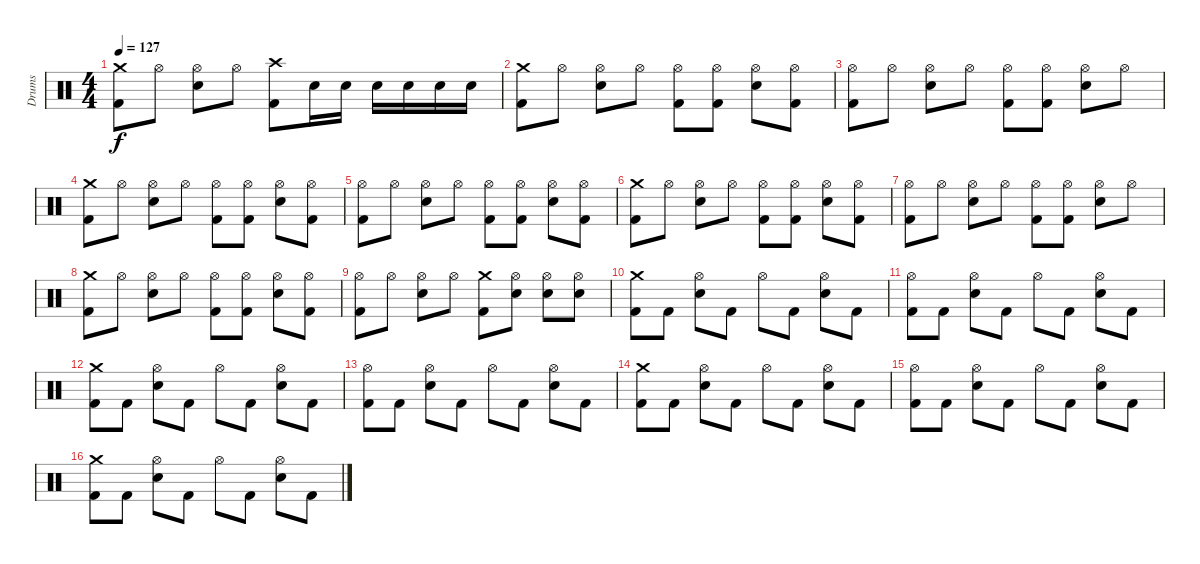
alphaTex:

\track ("Drums" "Drums") {instrument percussion}
\staff {score}
\articulation defaults
\ts (4 4)
\tempo 127
\clef neutral
\ks c
("Kick (hit) 2" "Crash medium (hit)").8{dy f} "Hi-Hat (open)".8 ("Electric Snare (hit)" "Hi-Hat (open)").8 "Hi-Hat (open)".8 ("Kick (hit) 2" "Crash high (hit)").8 "Electric Snare (hit)".16 "Electric Snare (hit)".16 "Electric Snare (hit)".16 "Electric Snare (hit)".16 "Electric Snare (hit)".16 "Electric Snare (hit)".16 |
("Kick (hit) 2" "Crash medium (hit)").8 "Hi-Hat (open)".8 ("Electric Snare (hit)" "Hi-Hat (open)").8 "Hi-Hat (open)".8 ("Kick (hit) 2" "Hi-Hat (open)").8 ("Kick (hit) 2" "Hi-Hat (open)").8 ("Electric Snare (hit)" "Hi-Hat (open)").8 ("Kick (hit) 2" "Hi-Hat (open)").8 |
("Kick (hit) 2" "Hi-Hat (open)").8 "Hi-Hat (open)".8 ("Electric Snare (hit)" "Hi-Hat (open)").8 "Hi-Hat (open)".8 ("Kick (hit) 2" "Hi-Hat (open)").8 ("Kick (hit) 2" "Hi-Hat (open)").8 ("Electric Snare (hit)" "Hi-Hat (open)").8 "Hi-Hat (open)".8 |
("Kick (hit) 2" "Crash medium (hit)").8 "Hi-Hat (open)".8 ("Electric Snare (hit)" "Hi-Hat (open)").8 "Hi-Hat (open)".8 ("Kick (hit) 2" "Hi-Hat (open)").8 ("Kick (hit) 2" "Hi-Hat (open)").8 ("Electric Snare (hit)" "Hi-Hat (open)").8 ("Kick (hit) 2" "Hi-Hat (open)").8 |
("Kick (hit) 2" "Hi-Hat (open)").8 "Hi-Hat (open)".8 ("Electric Snare (hit)" "Hi-Hat (open)").8 "Hi-Hat (open)".8 ("Kick (hit) 2" "Hi-Hat (open)").8 ("Kick (hit) 2" "Hi-Hat (open)").8 ("Electric Snare (hit)" "Hi-Hat (open)").8 ("Kick (hit) 2" "Hi-Hat (open)").8 |
("Kick (hit) 2" "Crash medium (hit)").8 "Hi-Hat (open)".8 ("Electric Snare (hit)" "Hi-Hat (open)").8 "Hi-Hat (open)".8 ("Kick (hit) 2" "Hi-Hat (open)").8 ("Kick (hit) 2" "Hi-Hat (open)").8 ("Electric Snare (hit)" "Hi-Hat (open)").8 ("Kick (hit) 2" "Hi-Hat (open)").8 |
("Kick (hit) 2" "Hi-Hat (open)").8 "Hi-Hat (open)".8 ("Electric Snare (hit)" "Hi-Hat (open)").8 "Hi-Hat (open)".8 ("Kick (hit) 2" "Hi-Hat (open)").8 ("Kick (hit) 2" "Hi-Hat (open)").8 ("Electric Snare (hit)" "Hi-Hat (open)").8 "Hi-Hat (open)".8 |
("Kick (hit) 2" "Crash medium (hit)").8 "Hi-Hat (open)".8 ("Electric Snare (hit)" "Hi-Hat (open)").8 "Hi-Hat (open)".8 ("Kick (hit) 2" "Hi-Hat (open)").8 ("Kick (hit) 2" "Hi-Hat (open)").8 ("Electric Snare (hit)" "Hi-Hat (open)").8 ("Kick (hit) 2" "Hi-Hat (open)").8 |
("Kick (hit) 2" "Hi-Hat (open)").8 "Hi-Hat (open)".8 ("Electric Snare (hit)" "Hi-Hat (open)").8 "Hi-Hat (open)".8 ("Kick (hit) 2" "Crash medium (hit)").8 ("Electric Snare (hit)" "Hi-Hat (open)").8 ("Electric Snare (hit)" "Hi-Hat (open)").8 ("Electric Snare (hit)" "Hi-Hat (open)").8 |
("Kick (hit) 2" "Crash medium (hit)").8 "Kick (hit) 2".8 ("Electric Snare (hit)" "Hi-Hat (open)").8 "Kick (hit) 2".8 "Hi-Hat (open)".8 "Kick (hit) 2".8 ("Electric Snare (hit)" "Hi-Hat (open)").8 "Kick (hit) 2".8 |
("Kick (hit) 2" "Hi-Hat (open)").8 "Kick (hit) 2".8 ("Electric Snare (hit)" "Hi-Hat (open)").8 "Kick (hit) 2".8 "Hi-Hat (open)".8 "Kick (hit) 2".8 ("Electric Snare (hit)" "Hi-Hat (open)").8 "Kick (hit) 2".8 |
("Kick (hit) 2" "Crash medium (hit)").8 "Kick (hit) 2".8 ("Electric Snare (hit)" "Hi-Hat (open)").8 "Kick (hit) 2".8 "Hi-Hat (open)".8 "Kick (hit) 2".8 ("Electric Snare (hit)" "Hi-Hat (open)").8 "Kick (hit) 2".8 |
("Kick (hit) 2" "Hi-Hat (open)").8 "Kick (hit) 2".8 ("Electric Snare (hit)" "Hi-Hat (open)").8 "Kick (hit) 2".8 "Hi-Hat (open)".8 "Kick (hit) 2".8 ("Electric Snare (hit)" "Hi-Hat (open)").8 "Kick (hit) 2".8 |
("Kick (hit) 2" "Crash medium (hit)").8 "Kick (hit) 2".8 ("Electric Snare (hit)" "Hi-Hat (open)").8 "Kick (hit) 2".8 "Hi-Hat (open)".8 "Kick (hit) 2".8 ("Electric Snare (hit)" "Hi-Hat (open)").8 "Kick (hit) 2".8 |
("Kick (hit) 2" "Hi-Hat (open)").8 "Kick (hit) 2".8 ("Electric Snare (hit)" "Hi-Hat (open)").8 "Kick (hit) 2".8 "Hi-Hat (open)".8 "Kick (hit) 2".8 ("Electric Snare (hit)" "Hi-Hat (open)").8 "Kick (hit) 2".8 |
("Kick (hit) 2" "Crash medium (hit)").8 "Kick (hit) 2".8 ("Electric Snare (hit)" "Hi-Hat (open)").8 "Kick (hit) 2".8 "Hi-Hat (open)".8 "Kick (hit) 2".8 ("Electric Snare (hit)" "Hi-Hat (open)").8 "Kick (hit) 2".8
